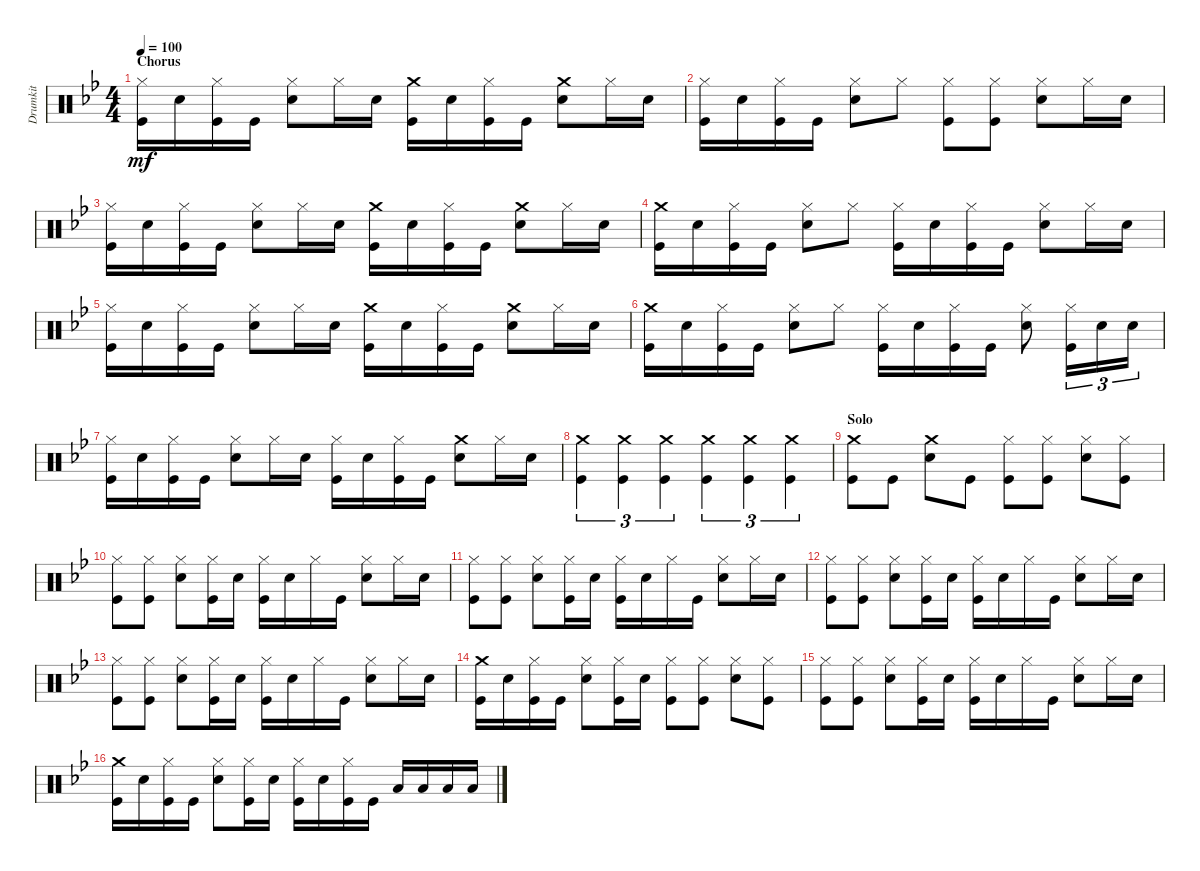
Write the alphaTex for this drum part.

\track ("Drumkit" "Drumkit") {instrument percussion}
\staff {score}
\articulation defaults
\ts (4 4)
\section ("" "Chorus")
\tempo 100
\clef neutral
\ks bb
("Kick (hit)" "Hi-Hat (closed)").16{dy mf} "Snare (hit) 2".16 ("Kick (hit)" "Hi-Hat (closed)").16 "Kick (hit)".16 ("Snare (hit) 2" "Hi-Hat (closed)").8 "Hi-Hat (closed)".16 "Snare (hit) 2".16 ("Kick (hit)" "Crash medium (hit)").16 "Snare (hit) 2".16 ("Kick (hit)" "Hi-Hat (closed)").16 "Kick (hit)".16 ("Snare (hit) 2" "Crash medium (hit)").8 "Hi-Hat (closed)".16 "Snare (hit) 2".16 |
("Kick (hit)" "Hi-Hat (closed)").16 "Snare (hit) 2".16 ("Kick (hit)" "Hi-Hat (closed)").16 "Kick (hit)".16 ("Snare (hit) 2" "Hi-Hat (closed)").8 "Hi-Hat (closed)".8 ("Kick (hit)" "Hi-Hat (closed)").8 ("Hi-Hat (closed)" "Kick (hit)").8 ("Snare (hit) 2" "Hi-Hat (closed)").8 "Hi-Hat (closed)".16 "Snare (hit) 2".16 |
("Kick (hit)" "Hi-Hat (closed)").16 "Snare (hit) 2".16 ("Kick (hit)" "Hi-Hat (closed)").16 "Kick (hit)".16 ("Snare (hit) 2" "Hi-Hat (closed)").8 "Hi-Hat (closed)".16 "Snare (hit) 2".16 ("Kick (hit)" "Crash medium (hit)").16 "Snare (hit) 2".16 ("Kick (hit)" "Hi-Hat (closed)").16 "Kick (hit)".16 ("Snare (hit) 2" "Crash medium (hit)").8 "Hi-Hat (closed)".16 "Snare (hit) 2".16 |
("Kick (hit)" "Crash medium (hit)").16 "Snare (hit) 2".16 ("Kick (hit)" "Hi-Hat (closed)").16 "Kick (hit)".16 ("Snare (hit) 2" "Hi-Hat (closed)").8 "Hi-Hat (closed)".8 ("Kick (hit)" "Hi-Hat (closed)").16 "Snare (hit) 2".16 ("Kick (hit)" "Hi-Hat (closed)").16 "Kick (hit)".16 ("Snare (hit) 2" "Hi-Hat (closed)").8 "Hi-Hat (closed)".16 "Snare (hit) 2".16 |
("Kick (hit)" "Hi-Hat (closed)").16 "Snare (hit) 2".16 ("Kick (hit)" "Hi-Hat (closed)").16 "Kick (hit)".16 ("Snare (hit) 2" "Hi-Hat (closed)").8 "Hi-Hat (closed)".16 "Snare (hit) 2".16 ("Kick (hit)" "Crash medium (hit)").16 "Snare (hit) 2".16 ("Kick (hit)" "Hi-Hat (closed)").16 "Kick (hit)".16 ("Snare (hit) 2" "Crash medium (hit)").8 "Hi-Hat (closed)".16 "Snare (hit) 2".16 |
("Kick (hit)" "Crash medium (hit)").16 "Snare (hit) 2".16 ("Kick (hit)" "Hi-Hat (closed)").16 "Kick (hit)".16 ("Snare (hit) 2" "Hi-Hat (closed)").8 "Hi-Hat (closed)".8 ("Kick (hit)" "Hi-Hat (closed)").16 "Snare (hit) 2".16 ("Kick (hit)" "Hi-Hat (closed)").16 "Kick (hit)".16 ("Snare (hit) 2" "Hi-Hat (closed)").8 ("Kick (hit)" "Hi-Hat (closed)").16{tu (3 2)} "Snare (hit) 2".16{tu (3 2)} "Snare (hit) 2".16{tu (3 2)} |
("Kick (hit)" "Hi-Hat (closed)").16 "Snare (hit) 2".16 ("Kick (hit)" "Hi-Hat (closed)").16 "Kick (hit)".16 ("Snare (hit) 2" "Hi-Hat (closed)").8 "Hi-Hat (closed)".16 "Snare (hit) 2".16 ("Kick (hit)" "Hi-Hat (closed)").16 "Snare (hit) 2".16 ("Kick (hit)" "Hi-Hat (closed)").16 "Kick (hit)".16 ("Snare (hit) 2" "Crash medium (hit)").8 "Hi-Hat (closed)".16 "Snare (hit) 2".16 |
("Crash medium (hit)" "Kick (hit)").4{tu (3 2)} ("Crash medium (hit)" "Kick (hit)").4{tu (3 2)} ("Crash medium (hit)" "Kick (hit)").4{tu (3 2)} ("Crash medium (hit)" "Kick (hit)").4{tu (3 2)} ("Crash medium (hit)" "Kick (hit)").4{tu (3 2)} ("Crash medium (hit)" "Kick (hit)").4{tu (3 2)} |
\section ("" "Solo")
("Crash medium (hit)" "Kick (hit)").8 "Kick (hit)".8 ("Crash medium (hit)" "Snare (hit) 2").8 "Kick (hit)".8 ("Kick (hit)" "Hi-Hat (closed)").8 ("Kick (hit)" "Hi-Hat (closed)").8 ("Snare (hit) 2" "Hi-Hat (closed)").8 ("Hi-Hat (closed)" "Kick (hit)").8 |
("Hi-Hat (closed)" "Kick (hit)").8 ("Hi-Hat (closed)" "Kick (hit)").8 ("Snare (hit) 2" "Hi-Hat (closed)").8 ("Kick (hit)" "Hi-Hat (closed)").16 "Snare (hit) 2".16 ("Kick (hit)" "Hi-Hat (closed)").16 "Snare (hit) 2".16 "Hi-Hat (closed)".16 "Kick (hit)".16 ("Snare (hit) 2" "Hi-Hat (closed)").8 "Hi-Hat (closed)".16 "Snare (hit) 2".16 |
("Hi-Hat (closed)" "Kick (hit)").8 ("Hi-Hat (closed)" "Kick (hit)").8 ("Snare (hit) 2" "Hi-Hat (closed)").8 ("Kick (hit)" "Hi-Hat (closed)").16 "Snare (hit) 2".16 ("Kick (hit)" "Hi-Hat (closed)").16 "Snare (hit) 2".16 "Hi-Hat (closed)".16 "Kick (hit)".16 ("Snare (hit) 2" "Hi-Hat (closed)").8 "Hi-Hat (closed)".16 "Snare (hit) 2".16 |
("Hi-Hat (closed)" "Kick (hit)").8 ("Hi-Hat (closed)" "Kick (hit)").8 ("Snare (hit) 2" "Hi-Hat (closed)").8 ("Kick (hit)" "Hi-Hat (closed)").16 "Snare (hit) 2".16 ("Kick (hit)" "Hi-Hat (closed)").16 "Snare (hit) 2".16 "Hi-Hat (closed)".16 "Kick (hit)".16 ("Snare (hit) 2" "Hi-Hat (closed)").8 "Hi-Hat (closed)".16 "Snare (hit) 2".16 |
("Hi-Hat (closed)" "Kick (hit)").8 ("Hi-Hat (closed)" "Kick (hit)").8 ("Snare (hit) 2" "Hi-Hat (closed)").8 ("Kick (hit)" "Hi-Hat (closed)").16 "Snare (hit) 2".16 ("Kick (hit)" "Hi-Hat (closed)").16 "Snare (hit) 2".16 "Hi-Hat (closed)".16 "Kick (hit)".16 ("Snare (hit) 2" "Hi-Hat (closed)").8 "Hi-Hat (closed)".16 "Snare (hit) 2".16 |
("Crash medium (hit)" "Kick (hit)").16 "Snare (hit) 2".16 ("Kick (hit)" "Hi-Hat (closed)").16 "Kick (hit)".16 ("Snare (hit) 2" "Hi-Hat (closed)").8 ("Kick (hit)" "Hi-Hat (closed)").16 "Snare (hit) 2".16 ("Kick (hit)" "Hi-Hat (closed)").8 ("Kick (hit)" "Hi-Hat (closed)").8 ("Hi-Hat (closed)" "Snare (hit) 2").8 ("Kick (hit)" "Hi-Hat (closed)").8 |
("Hi-Hat (closed)" "Kick (hit)").8 ("Hi-Hat (closed)" "Kick (hit)").8 ("Snare (hit) 2" "Hi-Hat (closed)").8 ("Kick (hit)" "Hi-Hat (closed)").16 "Snare (hit) 2".16 ("Kick (hit)" "Hi-Hat (closed)").16 "Snare (hit) 2".16 "Hi-Hat (closed)".16 "Kick (hit)".16 ("Snare (hit) 2" "Hi-Hat (closed)").8 "Hi-Hat (closed)".16 "Snare (hit) 2".16 |
("Crash medium (hit)" "Kick (hit)").16 "Snare (hit) 2".16 ("Hi-Hat (closed)" "Kick (hit)").16 "Kick (hit)".16 ("Snare (hit) 2" "Hi-Hat (closed)").8 ("Kick (hit)" "Hi-Hat (closed)").16 "Snare (hit) 2".16 ("Hi-Hat (closed)" "Kick (hit)").16 "Snare (hit) 2".16 ("Kick (hit)" "Hi-Hat (closed)").16 "Kick (hit)".16 "Low Tom (hit)".16 "Low Tom (hit)".16 "Low Floor Tom (hit)".16 "Low Floor Tom (hit)".16
